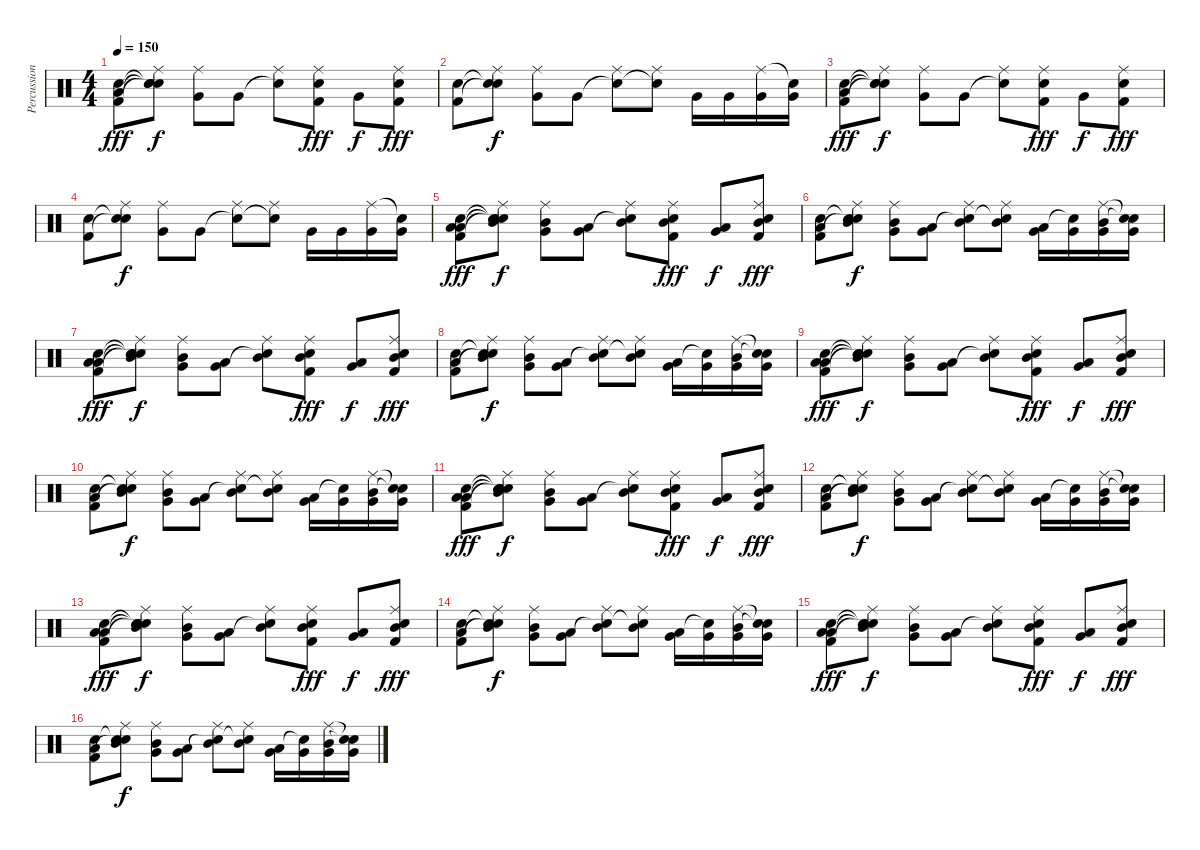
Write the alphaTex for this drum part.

\track ("Percussion" "Percussion") {instrument percussion}
\staff {score}
\articulation defaults
\ts (4 4)
\tempo 150
\clef neutral
\ks c
("Snare (hit) 2" "Kick (hit) 2" "Low Floor Tom (hit)").8{dy fff} ("Snare (hit)"{t} "Snare (hit)"{t} "Snare (hit)"{t} "Ride (middle)").8{dy f} ("Very Low Tom (hit)" "Ride (middle)").8 "Very Low Tom (hit)".8 ("Snare (hit)"{t} "Ride (middle)").8 ("Snare (hit) 2" "Kick (hit) 2" "Ride (middle)").8{dy fff} "Very Low Tom (hit)".8{dy f} ("Snare (hit) 2" "Kick (hit) 2" "Ride (middle)").8{dy fff} |
("Snare (hit) 2" "Kick (hit) 2").8 ("Snare (hit)"{t} "Snare (hit)"{t} "Ride (middle)").8{dy f} ("Very Low Tom (hit)" "Ride (middle)").8 "Very Low Tom (hit)".8 ("Snare (hit)"{t} "Ride (middle)").8 ("Snare (hit)"{t} "Ride (middle)").8 "Very Low Tom (hit)".16 "Very Low Tom (hit)".16 ("Very Low Tom (hit)" "Ride (middle)").16 ("Very Low Tom (hit)" "Snare (hit)"{t}).16 |
("Snare (hit) 2" "Kick (hit) 2" "Low Floor Tom (hit)").8{dy fff} ("Snare (hit)"{t} "Snare (hit)"{t} "Snare (hit)"{t} "Ride (middle)").8{dy f} ("Very Low Tom (hit)" "Ride (middle)").8 "Very Low Tom (hit)".8 ("Snare (hit)"{t} "Ride (middle)").8 ("Snare (hit) 2" "Kick (hit) 2" "Ride (middle)").8{dy fff} "Very Low Tom (hit)".8{dy f} ("Snare (hit) 2" "Kick (hit) 2" "Ride (middle)").8{dy fff} |
("Snare (hit) 2" "Kick (hit) 2").8 ("Snare (hit)"{t} "Snare (hit)"{t} "Ride (middle)").8{dy f} ("Very Low Tom (hit)" "Ride (middle)").8 "Very Low Tom (hit)".8 ("Snare (hit)"{t} "Ride (middle)").8 ("Snare (hit)"{t} "Ride (middle)").8 "Very Low Tom (hit)".16 "Very Low Tom (hit)".16 ("Very Low Tom (hit)" "Ride (middle)").16 ("Very Low Tom (hit)" "Snare (hit)"{t}).16 |
("Snare (hit) 2" "Kick (hit) 2" "Low Floor Tom (hit)" "Low Tom (hit)").8{dy fff} ("Snare (hit)"{t} "Snare (hit)"{t} "Snare (hit)"{t} "Ride (middle)" "Mid Tom (hit)").8{dy f} ("Very Low Tom (hit)" "Ride (middle)" "Mid Tom (hit)").8 ("Very Low Tom (hit)" "Low Tom (hit)").8 ("Snare (hit)"{t} "Ride (middle)" "Mid Tom (hit)").8 ("Snare (hit) 2" "Kick (hit) 2" "Ride (middle)" "Mid Tom (hit)").8{dy fff} ("Very Low Tom (hit)" "Low Tom (hit)").8{dy f} ("Snare (hit) 2" "Kick (hit) 2" "Ride (middle)" "Mid Tom (hit)").8{dy fff} |
("Snare (hit) 2" "Kick (hit) 2" "Low Tom (hit)").8 ("Snare (hit)"{t} "Snare (hit)"{t} "Ride (middle)" "Mid Tom (hit)").8{dy f} ("Very Low Tom (hit)" "Ride (middle)" "Mid Tom (hit)").8 ("Very Low Tom (hit)" "Low Tom (hit)").8 ("Snare (hit)"{t} "Ride (middle)" "Mid Tom (hit)").8 ("Snare (hit)"{t} "Ride (middle)" "Mid Tom (hit)").8 ("Very Low Tom (hit)" "Low Tom (hit)").16 ("Very Low Tom (hit)" "Snare (hit)"{t}).16 ("Very Low Tom (hit)" "Ride (middle)" "Mid Tom (hit)").16 ("Very Low Tom (hit)" "Snare (hit)"{t} "Snare (hit)"{t}).16 |
("Snare (hit) 2" "Kick (hit) 2" "Low Floor Tom (hit)" "Low Tom (hit)").8{dy fff} ("Snare (hit)"{t} "Snare (hit)"{t} "Snare (hit)"{t} "Ride (middle)" "Mid Tom (hit)").8{dy f} ("Very Low Tom (hit)" "Ride (middle)" "Mid Tom (hit)").8 ("Very Low Tom (hit)" "Low Tom (hit)").8 ("Snare (hit)"{t} "Ride (middle)" "Mid Tom (hit)").8 ("Snare (hit) 2" "Kick (hit) 2" "Ride (middle)" "Mid Tom (hit)").8{dy fff} ("Very Low Tom (hit)" "Low Tom (hit)").8{dy f} ("Snare (hit) 2" "Kick (hit) 2" "Ride (middle)" "Mid Tom (hit)").8{dy fff} |
("Snare (hit) 2" "Kick (hit) 2" "Low Tom (hit)").8 ("Snare (hit)"{t} "Snare (hit)"{t} "Ride (middle)" "Mid Tom (hit)").8{dy f} ("Very Low Tom (hit)" "Ride (middle)" "Mid Tom (hit)").8 ("Very Low Tom (hit)" "Low Tom (hit)").8 ("Snare (hit)"{t} "Ride (middle)" "Mid Tom (hit)").8 ("Snare (hit)"{t} "Ride (middle)" "Mid Tom (hit)").8 ("Very Low Tom (hit)" "Low Tom (hit)").16 ("Very Low Tom (hit)" "Snare (hit)"{t}).16 ("Very Low Tom (hit)" "Ride (middle)" "Mid Tom (hit)").16 ("Very Low Tom (hit)" "Snare (hit)"{t} "Snare (hit)"{t}).16 |
("Snare (hit) 2" "Kick (hit) 2" "Low Floor Tom (hit)" "Low Tom (hit)").8{dy fff} ("Snare (hit)"{t} "Snare (hit)"{t} "Snare (hit)"{t} "Ride (middle)" "Mid Tom (hit)").8{dy f} ("Very Low Tom (hit)" "Ride (middle)" "Mid Tom (hit)").8 ("Very Low Tom (hit)" "Low Tom (hit)").8 ("Snare (hit)"{t} "Ride (middle)" "Mid Tom (hit)").8 ("Snare (hit) 2" "Kick (hit) 2" "Ride (middle)" "Mid Tom (hit)").8{dy fff} ("Very Low Tom (hit)" "Low Tom (hit)").8{dy f} ("Snare (hit) 2" "Kick (hit) 2" "Ride (middle)" "Mid Tom (hit)").8{dy fff} |
("Snare (hit) 2" "Kick (hit) 2" "Low Tom (hit)").8 ("Snare (hit)"{t} "Snare (hit)"{t} "Ride (middle)" "Mid Tom (hit)").8{dy f} ("Very Low Tom (hit)" "Ride (middle)" "Mid Tom (hit)").8 ("Very Low Tom (hit)" "Low Tom (hit)").8 ("Snare (hit)"{t} "Ride (middle)" "Mid Tom (hit)").8 ("Snare (hit)"{t} "Ride (middle)" "Mid Tom (hit)").8 ("Very Low Tom (hit)" "Low Tom (hit)").16 ("Very Low Tom (hit)" "Snare (hit)"{t}).16 ("Very Low Tom (hit)" "Ride (middle)" "Mid Tom (hit)").16 ("Very Low Tom (hit)" "Snare (hit)"{t} "Snare (hit)"{t}).16 |
("Snare (hit) 2" "Kick (hit) 2" "Low Floor Tom (hit)" "Low Tom (hit)").8{dy fff} ("Snare (hit)"{t} "Snare (hit)"{t} "Snare (hit)"{t} "Ride (middle)" "Mid Tom (hit)").8{dy f} ("Very Low Tom (hit)" "Ride (middle)" "Mid Tom (hit)").8 ("Very Low Tom (hit)" "Low Tom (hit)").8 ("Snare (hit)"{t} "Ride (middle)" "Mid Tom (hit)").8 ("Snare (hit) 2" "Kick (hit) 2" "Ride (middle)" "Mid Tom (hit)").8{dy fff} ("Very Low Tom (hit)" "Low Tom (hit)").8{dy f} ("Snare (hit) 2" "Kick (hit) 2" "Ride (middle)" "Mid Tom (hit)").8{dy fff} |
("Snare (hit) 2" "Kick (hit) 2" "Low Tom (hit)").8 ("Snare (hit)"{t} "Snare (hit)"{t} "Ride (middle)" "Mid Tom (hit)").8{dy f} ("Very Low Tom (hit)" "Ride (middle)" "Mid Tom (hit)").8 ("Very Low Tom (hit)" "Low Tom (hit)").8 ("Snare (hit)"{t} "Ride (middle)" "Mid Tom (hit)").8 ("Snare (hit)"{t} "Ride (middle)" "Mid Tom (hit)").8 ("Very Low Tom (hit)" "Low Tom (hit)").16 ("Very Low Tom (hit)" "Snare (hit)"{t}).16 ("Very Low Tom (hit)" "Ride (middle)" "Mid Tom (hit)").16 ("Very Low Tom (hit)" "Snare (hit)"{t} "Snare (hit)"{t}).16 |
("Snare (hit) 2" "Kick (hit) 2" "Low Floor Tom (hit)" "Low Tom (hit)").8{dy fff} ("Snare (hit)"{t} "Snare (hit)"{t} "Snare (hit)"{t} "Ride (middle)" "Mid Tom (hit)").8{dy f} ("Very Low Tom (hit)" "Ride (middle)" "Mid Tom (hit)").8 ("Very Low Tom (hit)" "Low Tom (hit)").8 ("Snare (hit)"{t} "Ride (middle)" "Mid Tom (hit)").8 ("Snare (hit) 2" "Kick (hit) 2" "Ride (middle)" "Mid Tom (hit)").8{dy fff} ("Very Low Tom (hit)" "Low Tom (hit)").8{dy f} ("Snare (hit) 2" "Kick (hit) 2" "Ride (middle)" "Mid Tom (hit)").8{dy fff} |
("Snare (hit) 2" "Kick (hit) 2" "Low Tom (hit)").8 ("Snare (hit)"{t} "Snare (hit)"{t} "Ride (middle)" "Mid Tom (hit)").8{dy f} ("Very Low Tom (hit)" "Ride (middle)" "Mid Tom (hit)").8 ("Very Low Tom (hit)" "Low Tom (hit)").8 ("Snare (hit)"{t} "Ride (middle)" "Mid Tom (hit)").8 ("Snare (hit)"{t} "Ride (middle)" "Mid Tom (hit)").8 ("Very Low Tom (hit)" "Low Tom (hit)").16 ("Very Low Tom (hit)" "Snare (hit)"{t}).16 ("Very Low Tom (hit)" "Ride (middle)" "Mid Tom (hit)").16 ("Very Low Tom (hit)" "Snare (hit)"{t} "Snare (hit)"{t}).16 |
("Snare (hit) 2" "Kick (hit) 2" "Low Floor Tom (hit)" "Low Tom (hit)").8{dy fff} ("Snare (hit)"{t} "Snare (hit)"{t} "Snare (hit)"{t} "Ride (middle)" "Mid Tom (hit)").8{dy f} ("Very Low Tom (hit)" "Ride (middle)" "Mid Tom (hit)").8 ("Very Low Tom (hit)" "Low Tom (hit)").8 ("Snare (hit)"{t} "Ride (middle)" "Mid Tom (hit)").8 ("Snare (hit) 2" "Kick (hit) 2" "Ride (middle)" "Mid Tom (hit)").8{dy fff} ("Very Low Tom (hit)" "Low Tom (hit)").8{dy f} ("Snare (hit) 2" "Kick (hit) 2" "Ride (middle)" "Mid Tom (hit)").8{dy fff} |
("Snare (hit) 2" "Kick (hit) 2" "Low Tom (hit)").8 ("Snare (hit)"{t} "Snare (hit)"{t} "Ride (middle)" "Mid Tom (hit)").8{dy f} ("Very Low Tom (hit)" "Ride (middle)" "Mid Tom (hit)").8 ("Very Low Tom (hit)" "Low Tom (hit)").8 ("Snare (hit)"{t} "Ride (middle)" "Mid Tom (hit)").8 ("Snare (hit)"{t} "Ride (middle)" "Mid Tom (hit)").8 ("Very Low Tom (hit)" "Low Tom (hit)").16 ("Very Low Tom (hit)" "Snare (hit)"{t}).16 ("Very Low Tom (hit)" "Ride (middle)" "Mid Tom (hit)").16 ("Very Low Tom (hit)" "Snare (hit)"{t} "Snare (hit)"{t}).16
